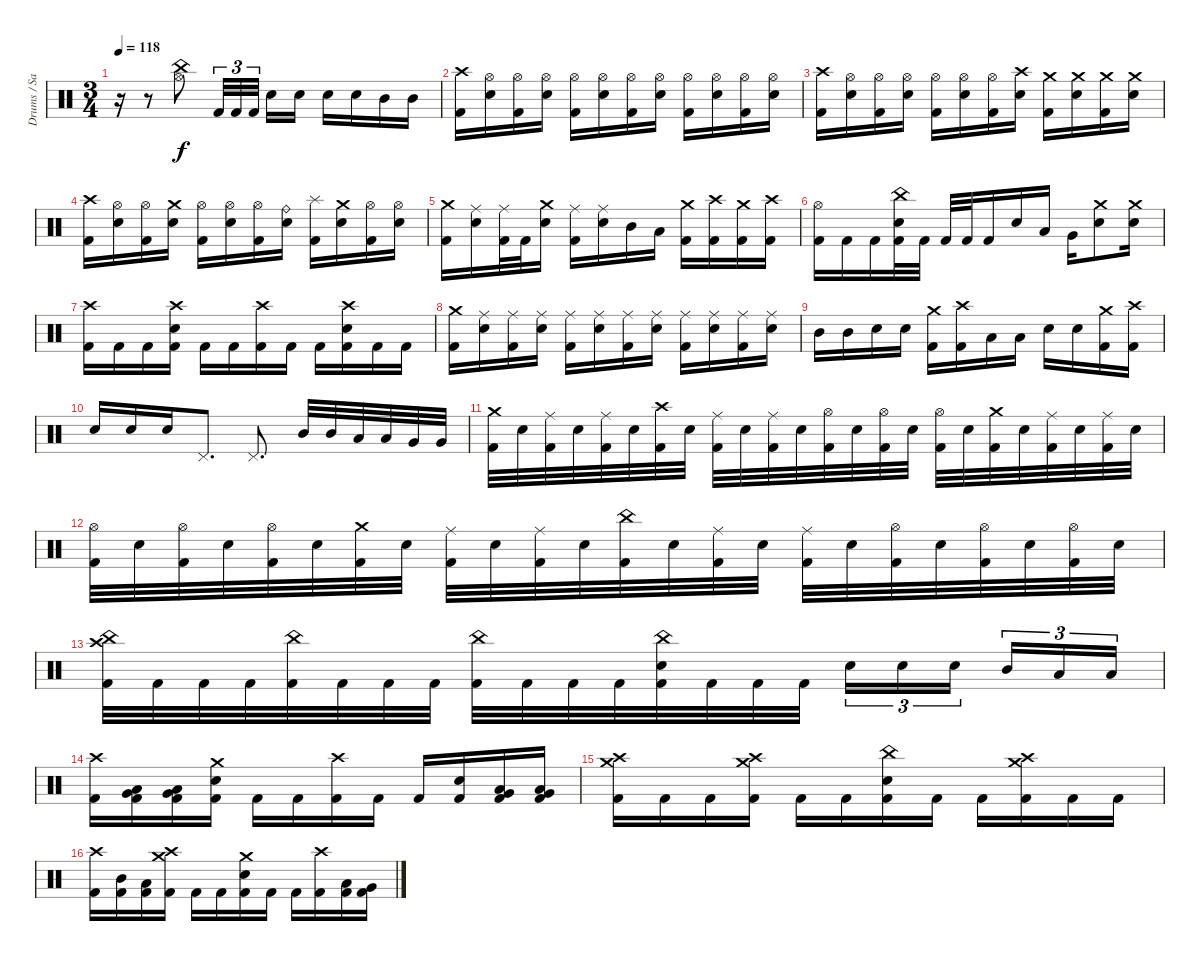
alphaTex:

\track ("Drums / Sasha" "Drums / Sa") {instrument percussion}
\staff {score}
\articulation defaults
\ts (3 4)
\tempo 118
\clef neutral
\ks c
r.16{dy f} r.8 ("Hi-Hat (open)" "China (hit)").8 "Kick (hit) 2".32{tu (3 2)} "Kick (hit) 2".32{tu (3 2)} "Kick (hit) 2".32{tu (3 2) beam splitsecondary} "Electric Snare (hit)".16 "Electric Snare (hit)".16 "Electric Snare (hit)".16 "Electric Snare (hit)".16 "Mid Tom (hit)".16 "Mid Tom (hit)".16 |
("Crash high (hit)" "Kick (hit) 2").16 ("Hi-Hat (open)" "Electric Snare (hit)").16 ("Hi-Hat (open)" "Kick (hit) 2").16 ("Hi-Hat (open)" "Electric Snare (hit)").16 ("Hi-Hat (open)" "Kick (hit) 2").16 ("Hi-Hat (open)" "Electric Snare (hit)").16 ("Hi-Hat (open)" "Kick (hit) 2").16 ("Hi-Hat (open)" "Electric Snare (hit)").16 ("Hi-Hat (open)" "Kick (hit) 2").16 ("Hi-Hat (open)" "Electric Snare (hit)").16 ("Hi-Hat (open)" "Kick (hit) 2").16 ("Hi-Hat (open)" "Electric Snare (hit)").16 |
("Crash high (hit)" "Kick (hit) 2").16 ("Hi-Hat (open)" "Electric Snare (hit)").16 ("Hi-Hat (open)" "Kick (hit) 2").16 ("Hi-Hat (open)" "Electric Snare (hit)").16 ("Hi-Hat (open)" "Kick (hit) 2").16 ("Hi-Hat (open)" "Electric Snare (hit)").16 ("Hi-Hat (open)" "Kick (hit) 2").16 ("Crash high (hit)" "Electric Snare (hit)").16 ("Crash medium (hit)" "Kick (hit) 2").16 ("Crash medium (hit)" "Electric Snare (hit)").16 ("Crash medium (hit)" "Kick (hit) 2").16 ("Crash medium (hit)" "Electric Snare (hit)").16 |
("Crash high (hit)" "Kick (hit) 2").16 ("Hi-Hat (open)" "Electric Snare (hit)").16 ("Hi-Hat (open)" "Kick (hit) 2").16 ("Crash medium (hit)" "Electric Snare (hit)").16 ("Hi-Hat (open)" "Kick (hit) 2").16 ("Hi-Hat (open)" "Electric Snare (hit)").16 ("Hi-Hat (open)" "Kick (hit) 2").16 ("Ride (bell)" "Electric Snare (hit)").16 ("Splash (hit)" "Kick (hit) 2").16 ("Crash medium (hit)" "Electric Snare (hit)").16 ("Hi-Hat (open)" "Kick (hit) 2").16 ("Hi-Hat (open)" "Electric Snare (hit)").16 |
("Crash medium (hit)" "Kick (hit) 2").16 ("Ride (middle)" "Electric Snare (hit)").16 ("Ride (middle)" "Kick (hit) 2").32 "Kick (hit) 2".32 ("Crash medium (hit)" "Electric Snare (hit)").16 ("Ride (middle)" "Kick (hit) 2").16 ("Ride (middle)" "Electric Snare (hit)").16 "Mid Tom (hit)".16 "Low Tom (hit)".16 ("Crash medium (hit)" "Kick (hit) 2").16 ("Crash high (hit)" "Kick (hit) 2").16 ("Crash medium (hit)" "Kick (hit) 2").16 ("Crash high (hit)" "Kick (hit) 2").16 |
("Hi-Hat (open)" "Kick (hit) 2").16 "Kick (hit) 2".16 "Kick (hit) 2".16 ("China (hit)" "Electric Snare (hit)" "Kick (hit) 2").32 "Kick (hit) 2".32 "Kick (hit) 2".32 "Kick (hit) 2".32 "Kick (hit) 2".16 "Electric Snare (hit)".16 "Low Tom (hit)".16 "Very Low Tom (hit)".16 ("Crash medium (hit)" "Electric Snare (hit)").8 ("Crash medium (hit)" "Electric Snare (hit)").16 |
("Crash high (hit)" "Kick (hit) 2").16 "Kick (hit) 2".16 "Kick (hit) 2".16 ("Crash high (hit)" "Electric Snare (hit)" "Kick (hit) 2").16 "Kick (hit) 2".16 "Kick (hit) 2".16 ("Crash high (hit)" "Kick (hit) 2").16 "Kick (hit) 2".16 "Kick (hit) 2".16 ("Crash high (hit)" "Electric Snare (hit)" "Kick (hit) 2").16 "Kick (hit) 2".16 "Kick (hit) 2".16 |
("Crash medium (hit)" "Kick (hit) 2").16 ("Ride (middle)" "Electric Snare (hit)").16 ("Ride (middle)" "Kick (hit) 2").16 ("Ride (middle)" "Electric Snare (hit)").16 ("Ride (middle)" "Kick (hit) 2").16 ("Ride (middle)" "Electric Snare (hit)").16 ("Ride (middle)" "Kick (hit) 2").16 ("Ride (middle)" "Electric Snare (hit)").16 ("Ride (middle)" "Kick (hit) 2").16 ("Ride (middle)" "Electric Snare (hit)").16 ("Ride (middle)" "Kick (hit) 2").16 ("Ride (middle)" "Electric Snare (hit)").16 |
"Mid Tom (hit)".16 "Mid Tom (hit)".16 "Electric Snare (hit)".16 "Electric Snare (hit)".16 ("Crash medium (hit)" "Kick (hit) 2").16 ("Crash high (hit)" "Kick (hit) 2").16 "Low Tom (hit)".16 "Low Tom (hit)".16 "Electric Snare (hit)".16 "Electric Snare (hit)".16 ("Crash medium (hit)" "Kick (hit) 2").16 ("Crash high (hit)" "Kick (hit) 2").16 |
"Electric Snare (hit)".16 "Electric Snare (hit)".16 "Electric Snare (hit)".16 "Pedal Hi-Hat (hit)".8{d} "Pedal Hi-Hat (hit)".8{d} "Mid Tom (hit)".32 "Mid Tom (hit)".32 "Low Tom (hit)".32 "Low Tom (hit)".32 "Very Low Tom (hit)".32 "Very Low Tom (hit)".32 |
("Crash medium (hit)" "Kick (hit) 2").32 "Electric Snare (hit)".32 ("Ride (middle)" "Kick (hit) 2").32 "Electric Snare (hit)".32 ("Ride (middle)" "Kick (hit) 2").32 "Electric Snare (hit)".32 ("Crash high (hit)" "Kick (hit) 2").32 "Electric Snare (hit)".32 ("Ride (middle)" "Kick (hit) 2").32 "Electric Snare (hit)".32 ("Ride (middle)" "Kick (hit) 2").32 "Electric Snare (hit)".32 ("Hi-Hat (open)" "Kick (hit) 2").32 "Electric Snare (hit)".32 ("Hi-Hat (open)" "Kick (hit) 2").32 "Electric Snare (hit)".32 ("Hi-Hat (open)" "Kick (hit) 2").32 "Electric Snare (hit)".32 ("Crash medium (hit)" "Kick (hit) 2").32 "Electric Snare (hit)".32 ("Ride (middle)" "Kick (hit) 2").32 "Electric Snare (hit)".32 ("Ride (middle)" "Kick (hit) 2").32 "Electric Snare (hit)".32 |
("Hi-Hat (open)" "Kick (hit) 2").32 "Electric Snare (hit)".32 ("Hi-Hat (open)" "Kick (hit) 2").32 "Electric Snare (hit)".32 ("Hi-Hat (open)" "Kick (hit) 2").32 "Electric Snare (hit)".32 ("Crash medium (hit)" "Kick (hit) 2").32 "Electric Snare (hit)".32 ("Ride (middle)" "Kick (hit) 2").32 "Electric Snare (hit)".32 ("Ride (middle)" "Kick (hit) 2").32 "Electric Snare (hit)".32 ("China (hit)" "Kick (hit) 2").32 "Electric Snare (hit)".32 ("Ride (middle)" "Kick (hit) 2").32 "Electric Snare (hit)".32 ("Ride (middle)" "Kick (hit) 2").32 "Electric Snare (hit)".32 ("Hi-Hat (open)" "Kick (hit) 2").32 "Electric Snare (hit)".32 ("Hi-Hat (open)" "Kick (hit) 2").32 "Electric Snare (hit)".32 ("Hi-Hat (open)" "Kick (hit) 2").32 "Electric Snare (hit)".32 |
("China (hit)" "Crash high (hit)" "Kick (hit) 2").32 "Kick (hit) 2".32 "Kick (hit) 2".32 "Kick (hit) 2".32 ("China (hit)" "Kick (hit) 2").32 "Kick (hit) 2".32 "Kick (hit) 2".32 "Kick (hit) 2".32 ("China (hit)" "Kick (hit) 2").32 "Kick (hit) 2".32 "Kick (hit) 2".32 "Kick (hit) 2".32 ("China (hit)" "Electric Snare (hit)" "Kick (hit) 2").32 "Kick (hit) 2".32 "Kick (hit) 2".32 "Kick (hit) 2".32 "Electric Snare (hit)".16{tu (3 2)} "Electric Snare (hit)".16{tu (3 2)} "Electric Snare (hit)".16{tu (3 2) beam splitsecondary} "Mid Tom (hit)".16{tu (3 2)} "Low Tom (hit)".16{tu (3 2)} "Low Tom (hit)".16{tu (3 2)} |
("Crash high (hit)" "Kick (hit) 2").16 ("Low Tom (hit)" "Very Low Tom (hit)" "Kick (hit) 2").16 ("Low Tom (hit)" "Very Low Tom (hit)" "Kick (hit) 2").16 ("Crash medium (hit)" "Electric Snare (hit)" "Kick (hit) 2").16 "Kick (hit) 2".16 "Kick (hit) 2".16 ("Crash high (hit)" "Kick (hit) 2").16 "Kick (hit) 2".16 "Kick (hit) 2".16 ("Electric Snare (hit)" "Kick (hit) 2").16 ("Low Tom (hit)" "Very Low Tom (hit)" "Kick (hit) 2").16 ("Low Tom (hit)" "Very Low Tom (hit)" "Kick (hit) 2").16 |
("Crash high (hit)" "Crash medium (hit)" "Kick (hit) 2").16 "Kick (hit) 2".16 "Kick (hit) 2".16 ("Crash high (hit)" "Crash medium (hit)" "Kick (hit) 2").16 "Kick (hit) 2".16 "Kick (hit) 2".16 ("China (hit)" "Electric Snare (hit)" "Kick (hit) 2").16 "Kick (hit) 2".16 "Kick (hit) 2".16 ("Crash high (hit)" "Crash medium (hit)" "Kick (hit) 2").16 "Kick (hit) 2".16 "Kick (hit) 2".16 |
("Crash high (hit)" "Kick (hit) 2").16 ("Mid Tom (hit)" "Kick (hit) 2").16 ("Low Tom (hit)" "Kick (hit) 2").16 ("Crash high (hit)" "Crash medium (hit)" "Kick (hit) 2").16 "Kick (hit) 2".16 "Kick (hit) 2".16 ("Crash medium (hit)" "Electric Snare (hit)" "Kick (hit) 2").16 "Kick (hit) 2".16 "Kick (hit) 2".16 ("Crash high (hit)" "Kick (hit) 2").16 ("Low Tom (hit)" "Kick (hit) 2").16 ("Very Low Tom (hit)" "Kick (hit) 2").16
